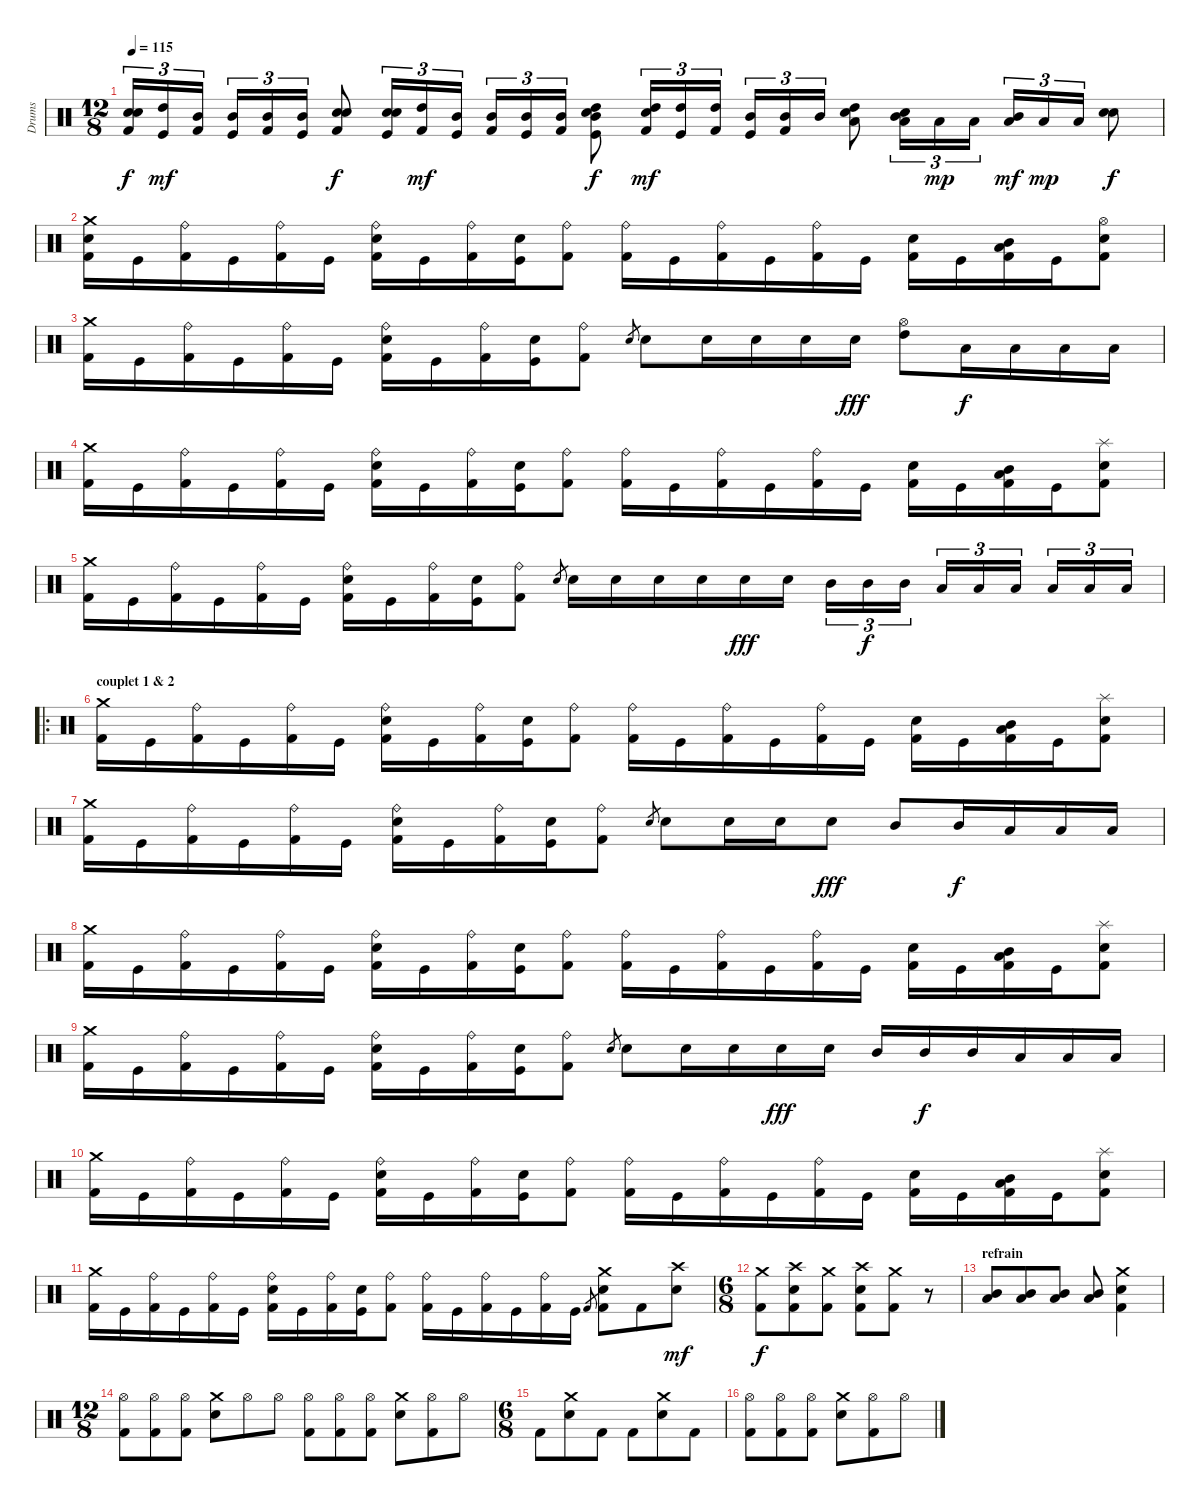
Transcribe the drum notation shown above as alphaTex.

\track ("Drums" "Drums") {instrument percussion}
\staff {score}
\articulation defaults
\ts (12 8)
\tempo 115
\clef neutral
\ks c
("Kick (hit) 2" "Electric Snare (hit)" "Snare (hit) 2").16{tu (3 2) dy f} ("Kick (hit)" "High Tom (hit)").16{tu (3 2) dy mf} ("Kick (hit) 2" "Mid Tom (hit)").16{tu (3 2)} ("Kick (hit)" "Mid Tom (hit)").16{tu (3 2)} ("Kick (hit) 2" "Mid Tom (hit)").16{tu (3 2)} ("Kick (hit)" "Mid Tom (hit)").16{tu (3 2)} ("Kick (hit) 2" "Electric Snare (hit)" "Snare (hit) 2").8{dy f} ("Kick (hit)" "Electric Snare (hit)" "Snare (hit) 2").16{tu (3 2)} ("Kick (hit) 2" "High Tom (hit)").16{tu (3 2) dy mf} ("Kick (hit)" "Mid Tom (hit)").16{tu (3 2)} ("Kick (hit) 2" "Mid Tom (hit)").16{tu (3 2)} ("Kick (hit)" "Mid Tom (hit)").16{tu (3 2)} ("Kick (hit) 2" "Mid Tom (hit)").16{tu (3 2)} ("Kick (hit)" "High Tom (hit)" "Mid Tom (hit)" "Snare (hit) 2").8{dy f} ("Kick (hit) 2" "High Tom (hit)" "Electric Snare (hit)").16{tu (3 2) dy mf} ("Kick (hit)" "High Tom (hit)").16{tu (3 2)} ("Kick (hit) 2" "High Tom (hit)").16{tu (3 2)} ("Kick (hit)" "Mid Tom (hit)").16{tu (3 2)} ("Kick (hit) 2" "Mid Tom (hit)").16{tu (3 2)} "Mid Tom (hit)".16{tu (3 2)} ("Low Tom (hit)" "High Tom (hit)" "Snare (hit) 2").8 ("Snare (hit) 2" "Low Tom (hit)" "Mid Tom (hit)").16{tu (3 2)} "Low Tom (hit)".16{tu (3 2) dy mp} "Low Tom (hit)".16{tu (3 2)} ("Low Tom (hit)" "Mid Tom (hit)").16{tu (3 2) dy mf} "Low Floor Tom (hit)".16{tu (3 2) dy mp} "Low Floor Tom (hit)".16{tu (3 2)} ("Electric Snare (hit)" "Snare (hit) 2").8{dy f} |
("Kick (hit) 2" "Snare (hit) 2" "Crash medium (hit)").16 "Kick (hit)".16 ("Kick (hit) 2" "Ride (bell)").16 "Kick (hit)".16 ("Kick (hit) 2" "Ride (bell)").16 "Kick (hit)".16 ("Kick (hit) 2" "Electric Snare (hit)" "Ride (bell)").16 "Kick (hit)".16 ("Kick (hit) 2" "Ride (bell)").16 ("Kick (hit)" "Electric Snare (hit)").16 ("Kick (hit) 2" "Ride (bell)").8 ("Kick (hit) 2" "Ride (bell)").16 "Kick (hit)".16 ("Kick (hit) 2" "Ride (bell)").16 "Kick (hit)".16 ("Kick (hit) 2" "Ride (bell)").16 "Kick (hit)".16 ("Kick (hit) 2" "Electric Snare (hit)").16 "Kick (hit)".16 ("Kick (hit) 2" "Low Tom (hit)" "Mid Tom (hit)").16 "Kick (hit)".16 ("Kick (hit) 2" "Electric Snare (hit)" "Hi-Hat (open)").8 |
("Kick (hit) 2" "Crash medium (hit)").16 "Kick (hit)".16 ("Kick (hit) 2" "Ride (bell)").16 "Kick (hit)".16 ("Kick (hit) 2" "Ride (bell)").16 "Kick (hit)".16 ("Kick (hit) 2" "Electric Snare (hit)" "Ride (bell)").16 "Kick (hit)".16 ("Kick (hit) 2" "Ride (bell)").16 ("Kick (hit)" "Electric Snare (hit)").16 ("Kick (hit) 2" "Ride (bell)").8 "Electric Snare (hit)".8{gr} "Electric Snare (hit)".8 "Electric Snare (hit)".16 "Electric Snare (hit)".16 "Electric Snare (hit)".16 "Electric Snare (hit)".16{dy fff} ("High Tom (hit)" "Hi-Hat (open)").8 "Low Tom (hit)".16{dy f} "Low Tom (hit)".16 "Low Floor Tom (hit)".16 "Low Floor Tom (hit)".16 |
("Kick (hit) 2" "Crash medium (hit)").16 "Kick (hit)".16 ("Kick (hit) 2" "Ride (bell)").16 "Kick (hit)".16 ("Kick (hit) 2" "Ride (bell)").16 "Kick (hit)".16 ("Kick (hit) 2" "Electric Snare (hit)" "Ride (bell)").16 "Kick (hit)".16 ("Kick (hit) 2" "Ride (bell)").16 ("Kick (hit)" "Electric Snare (hit)").16 ("Kick (hit) 2" "Ride (bell)").8 ("Kick (hit) 2" "Ride (bell)").16 "Kick (hit)".16 ("Kick (hit) 2" "Ride (bell)").16 "Kick (hit)".16 ("Kick (hit) 2" "Ride (bell)").16 "Kick (hit)".16 ("Kick (hit) 2" "Electric Snare (hit)").16 "Kick (hit)".16 ("Kick (hit) 2" "Low Tom (hit)" "Mid Tom (hit)").16 "Kick (hit)".16 ("Kick (hit) 2" "Electric Snare (hit)" "Splash (hit)").8 |
("Kick (hit) 2" "Crash medium (hit)").16 "Kick (hit)".16 ("Kick (hit) 2" "Ride (bell)").16 "Kick (hit)".16 ("Kick (hit) 2" "Ride (bell)").16 "Kick (hit)".16 ("Kick (hit) 2" "Electric Snare (hit)" "Ride (bell)").16 "Kick (hit)".16 ("Kick (hit) 2" "Ride (bell)").16 ("Kick (hit)" "Electric Snare (hit)").16 ("Kick (hit) 2" "Ride (bell)").8 "Electric Snare (hit)".8{gr} "Electric Snare (hit)".16 "Electric Snare (hit)".16 "Electric Snare (hit)".16 "Electric Snare (hit)".16 "Electric Snare (hit)".16{dy fff} "Electric Snare (hit)".16 "Mid Tom (hit)".16{tu (3 2)} "Mid Tom (hit)".16{tu (3 2) dy f} "Mid Tom (hit)".16{tu (3 2)} "Low Tom (hit)".16{tu (3 2)} "Low Tom (hit)".16{tu (3 2)} "Low Tom (hit)".16{tu (3 2)} "Low Floor Tom (hit)".16{tu (3 2)} "Low Floor Tom (hit)".16{tu (3 2)} "Low Floor Tom (hit)".16{tu (3 2)} |
\ro
\section ("" "couplet 1 & 2")
("Kick (hit) 2" "Crash medium (hit)").16 "Kick (hit)".16 ("Kick (hit) 2" "Ride (bell)").16 "Kick (hit)".16 ("Kick (hit) 2" "Ride (bell)").16 "Kick (hit)".16 ("Kick (hit) 2" "Electric Snare (hit)" "Ride (bell)").16 "Kick (hit)".16 ("Kick (hit) 2" "Ride (bell)").16 ("Kick (hit)" "Electric Snare (hit)").16 ("Kick (hit) 2" "Ride (bell)").8 ("Kick (hit) 2" "Ride (bell)").16 "Kick (hit)".16 ("Kick (hit) 2" "Ride (bell)").16 "Kick (hit)".16 ("Kick (hit) 2" "Ride (bell)").16 "Kick (hit)".16 ("Kick (hit) 2" "Electric Snare (hit)").16 "Kick (hit)".16 ("Kick (hit) 2" "Low Tom (hit)" "Mid Tom (hit)").16 "Kick (hit)".16 ("Kick (hit) 2" "Electric Snare (hit)" "Splash (hit)").8 |
("Kick (hit) 2" "Crash medium (hit)").16 "Kick (hit)".16 ("Kick (hit) 2" "Ride (bell)").16 "Kick (hit)".16 ("Kick (hit) 2" "Ride (bell)").16 "Kick (hit)".16 ("Kick (hit) 2" "Electric Snare (hit)" "Ride (bell)").16 "Kick (hit)".16 ("Kick (hit) 2" "Ride (bell)").16 ("Kick (hit)" "Electric Snare (hit)").16 ("Kick (hit) 2" "Ride (bell)").8 "Electric Snare (hit)".8{gr} "Electric Snare (hit)".8 "Electric Snare (hit)".16 "Electric Snare (hit)".16 "Electric Snare (hit)".8{dy fff} "Mid Tom (hit)".8 "Mid Tom (hit)".16{dy f} "Low Tom (hit)".16 "Low Tom (hit)".16 "Low Tom (hit)".16 |
("Kick (hit) 2" "Crash medium (hit)").16 "Kick (hit)".16 ("Kick (hit) 2" "Ride (bell)").16 "Kick (hit)".16 ("Kick (hit) 2" "Ride (bell)").16 "Kick (hit)".16 ("Kick (hit) 2" "Electric Snare (hit)" "Ride (bell)").16 "Kick (hit)".16 ("Kick (hit) 2" "Ride (bell)").16 ("Kick (hit)" "Electric Snare (hit)").16 ("Kick (hit) 2" "Ride (bell)").8 ("Kick (hit) 2" "Ride (bell)").16 "Kick (hit)".16 ("Kick (hit) 2" "Ride (bell)").16 "Kick (hit)".16 ("Kick (hit) 2" "Ride (bell)").16 "Kick (hit)".16 ("Kick (hit) 2" "Electric Snare (hit)").16 "Kick (hit)".16 ("Kick (hit) 2" "Low Tom (hit)" "Mid Tom (hit)").16 "Kick (hit)".16 ("Kick (hit) 2" "Electric Snare (hit)" "Splash (hit)").8 |
("Kick (hit) 2" "Crash medium (hit)").16 "Kick (hit)".16 ("Kick (hit) 2" "Ride (bell)").16 "Kick (hit)".16 ("Kick (hit) 2" "Ride (bell)").16 "Kick (hit)".16 ("Kick (hit) 2" "Electric Snare (hit)" "Ride (bell)").16 "Kick (hit)".16 ("Kick (hit) 2" "Ride (bell)").16 ("Kick (hit)" "Electric Snare (hit)").16 ("Kick (hit) 2" "Ride (bell)").8 "Electric Snare (hit)".8{gr} "Electric Snare (hit)".8 "Electric Snare (hit)".16 "Electric Snare (hit)".16 "Electric Snare (hit)".16{dy fff} "Electric Snare (hit)".16 "Mid Tom (hit)".16 "Mid Tom (hit)".16{dy f} "Mid Tom (hit)".16 "Low Tom (hit)".16 "Low Tom (hit)".16 "Low Tom (hit)".16 |
("Kick (hit) 2" "Crash medium (hit)").16 "Kick (hit)".16 ("Kick (hit) 2" "Ride (bell)").16 "Kick (hit)".16 ("Kick (hit) 2" "Ride (bell)").16 "Kick (hit)".16 ("Kick (hit) 2" "Electric Snare (hit)" "Ride (bell)").16 "Kick (hit)".16 ("Kick (hit) 2" "Ride (bell)").16 ("Kick (hit)" "Electric Snare (hit)").16 ("Kick (hit) 2" "Ride (bell)").8 ("Kick (hit) 2" "Ride (bell)").16 "Kick (hit)".16 ("Kick (hit) 2" "Ride (bell)").16 "Kick (hit)".16 ("Kick (hit) 2" "Ride (bell)").16 "Kick (hit)".16 ("Kick (hit) 2" "Electric Snare (hit)").16 "Kick (hit)".16 ("Kick (hit) 2" "Low Tom (hit)" "Mid Tom (hit)").16 "Kick (hit)".16 ("Kick (hit) 2" "Electric Snare (hit)" "Splash (hit)").8 |
("Kick (hit) 2" "Crash medium (hit)").16 "Kick (hit)".16 ("Kick (hit) 2" "Ride (bell)").16 "Kick (hit)".16 ("Kick (hit) 2" "Ride (bell)").16 "Kick (hit)".16 ("Kick (hit) 2" "Electric Snare (hit)" "Ride (bell)").16 "Kick (hit)".16 ("Kick (hit) 2" "Ride (bell)").16 ("Kick (hit)" "Electric Snare (hit)").16 ("Kick (hit) 2" "Ride (bell)").8 ("Kick (hit) 2" "Ride (bell)").16 "Kick (hit)".16 ("Kick (hit) 2" "Ride (bell)").16 "Kick (hit)".16 ("Kick (hit) 2" "Ride (bell)").16 "Kick (hit)".16 "Kick (hit) 2".8{gr} ("Kick (hit) 2" "Electric Snare (hit)" "Crash medium (hit)").8 "Kick (hit) 2".8 ("Electric Snare (hit)" "Crash high (hit)").8{dy mf} |
\ts (6 8)
("Kick (hit) 2" "Crash medium (hit)").8{dy f} ("Kick (hit) 2" "Electric Snare (hit)" "Crash high (hit)").8 ("Kick (hit) 2" "Crash medium (hit)").8 ("Kick (hit) 2" "Electric Snare (hit)" "Crash high (hit)").8 ("Kick (hit) 2" "Crash medium (hit)").8 r.8 |
\section ("" "refrain")
("Mid Tom (hit)" "Low Floor Tom (hit)").8 ("Mid Tom (hit)" "Low Floor Tom (hit)").8 ("Mid Tom (hit)" "Low Floor Tom (hit)").8 ("Mid Tom (hit)" "Low Floor Tom (hit)").8 ("Kick (hit) 2" "Electric Snare (hit)" "Crash medium (hit)").4 |
\ts (12 8)
("Kick (hit) 2" "Hi-Hat (open)").8 ("Kick (hit) 2" "Hi-Hat (open)").8 ("Kick (hit) 2" "Hi-Hat (open)").8 ("Electric Snare (hit)" "Crash medium (hit)").8 "Hi-Hat (open)".8 "Hi-Hat (open)".8 ("Kick (hit) 2" "Hi-Hat (open)").8 ("Kick (hit) 2" "Hi-Hat (open)").8 ("Kick (hit) 2" "Hi-Hat (open)").8 ("Electric Snare (hit)" "Crash medium (hit)").8 ("Kick (hit) 2" "Hi-Hat (open)").8 "Hi-Hat (open)".8 |
\ts (6 8)
"Kick (hit) 2".8 ("Electric Snare (hit)" "Crash medium (hit)").8 "Kick (hit) 2".8 "Kick (hit) 2".8 ("Electric Snare (hit)" "Crash medium (hit)").8 "Kick (hit) 2".8 |
("Kick (hit) 2" "Hi-Hat (open)").8 ("Kick (hit) 2" "Hi-Hat (open)").8 ("Kick (hit) 2" "Hi-Hat (open)").8 ("Electric Snare (hit)" "Crash medium (hit)").8 ("Kick (hit) 2" "Hi-Hat (open)").8 "Hi-Hat (open)".8
